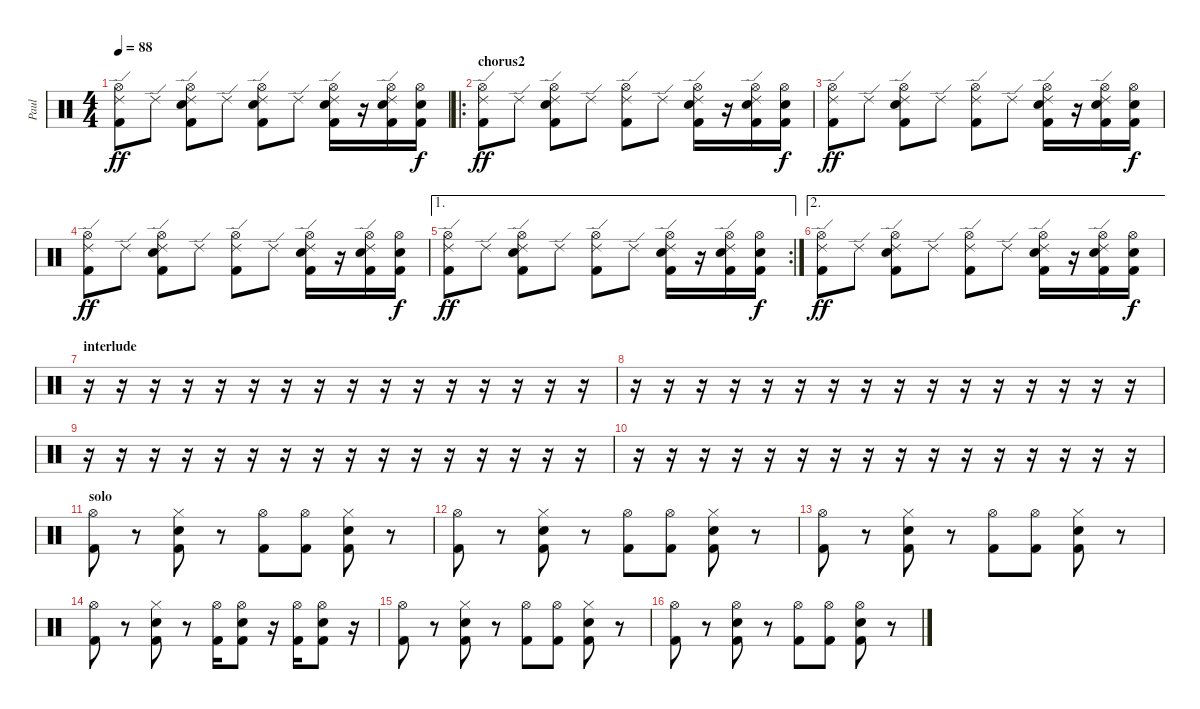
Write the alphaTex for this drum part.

\track ("Paul" "Paul") {instrument percussion}
\staff {score}
\articulation defaults
\ts (4 4)
\tempo 88
\clef neutral
\ks c
("Hi-Hat (open)" "Ride (edge) 2" "Kick (hit) 2").8{dy ff} "Ride (edge) 2".8 ("Snare (hit) 2" "Hi-Hat (open)" "Ride (edge) 2" "Kick (hit) 2").8 "Ride (edge) 2".8 ("Snare (hit) 2" "Hi-Hat (open)" "Ride (edge) 2" "Kick (hit) 2").8 "Ride (edge) 2".8 ("Snare (hit) 2" "Hi-Hat (open)" "Ride (edge) 2" "Kick (hit) 2").16 r.16 ("Snare (hit) 2" "Hi-Hat (open)" "Ride (edge) 2" "Kick (hit) 2").16 ("Snare (hit) 2" "Hi-Hat (open)" "Kick (hit) 2").16{dy f} |
\ro
\section ("" "chorus2")
("Hi-Hat (open)" "Ride (edge) 2" "Kick (hit) 2").8{dy ff} "Ride (edge) 2".8 ("Snare (hit) 2" "Hi-Hat (open)" "Ride (edge) 2" "Kick (hit) 2").8 "Ride (edge) 2".8 ("Hi-Hat (open)" "Ride (edge) 2" "Kick (hit) 2").8 "Ride (edge) 2".8 ("Snare (hit) 2" "Hi-Hat (open)" "Ride (edge) 2" "Kick (hit) 2").16 r.16 ("Snare (hit) 2" "Hi-Hat (open)" "Ride (edge) 2" "Kick (hit) 2").16 ("Snare (hit) 2" "Hi-Hat (open)" "Kick (hit) 2").16{dy f} |
("Hi-Hat (open)" "Ride (edge) 2" "Kick (hit) 2").8{dy ff} "Ride (edge) 2".8 ("Snare (hit) 2" "Hi-Hat (open)" "Ride (edge) 2" "Kick (hit) 2").8 "Ride (edge) 2".8 ("Hi-Hat (open)" "Ride (edge) 2" "Kick (hit) 2").8 "Ride (edge) 2".8 ("Snare (hit) 2" "Hi-Hat (open)" "Ride (edge) 2" "Kick (hit) 2").16 r.16 ("Snare (hit) 2" "Hi-Hat (open)" "Ride (edge) 2" "Kick (hit) 2").16 ("Snare (hit) 2" "Hi-Hat (open)" "Kick (hit) 2").16{dy f} |
("Hi-Hat (open)" "Ride (edge) 2" "Kick (hit) 2").8{dy ff} "Ride (edge) 2".8 ("Snare (hit) 2" "Hi-Hat (open)" "Ride (edge) 2" "Kick (hit) 2").8 "Ride (edge) 2".8 ("Hi-Hat (open)" "Ride (edge) 2" "Kick (hit) 2").8 "Ride (edge) 2".8 ("Snare (hit) 2" "Hi-Hat (open)" "Ride (edge) 2" "Kick (hit) 2").16 r.16 ("Snare (hit) 2" "Hi-Hat (open)" "Ride (edge) 2" "Kick (hit) 2").16 ("Snare (hit) 2" "Hi-Hat (open)" "Kick (hit) 2").16{dy f} |
\ae 1
\rc 2
("Hi-Hat (open)" "Ride (edge) 2" "Kick (hit) 2").8{dy ff} "Ride (edge) 2".8 ("Snare (hit) 2" "Hi-Hat (open)" "Ride (edge) 2" "Kick (hit) 2").8 "Ride (edge) 2".8 ("Hi-Hat (open)" "Ride (edge) 2" "Kick (hit) 2").8 "Ride (edge) 2".8 ("Snare (hit) 2" "Hi-Hat (open)" "Ride (edge) 2" "Kick (hit) 2").16 r.16 ("Snare (hit) 2" "Hi-Hat (open)" "Ride (edge) 2" "Kick (hit) 2").16 ("Snare (hit) 2" "Hi-Hat (open)" "Kick (hit) 2").16{dy f} |
\ae 2
("Hi-Hat (open)" "Ride (edge) 2" "Kick (hit) 2").8{dy ff} "Ride (edge) 2".8 ("Snare (hit) 2" "Hi-Hat (open)" "Ride (edge) 2" "Kick (hit) 2").8 "Ride (edge) 2".8 ("Hi-Hat (open)" "Ride (edge) 2" "Kick (hit) 2").8 "Ride (edge) 2".8 ("Snare (hit) 2" "Hi-Hat (open)" "Ride (edge) 2" "Kick (hit) 2").16 r.16 ("Snare (hit) 2" "Hi-Hat (open)" "Ride (edge) 2" "Kick (hit) 2").16 ("Snare (hit) 2" "Hi-Hat (open)" "Kick (hit) 2").16{dy f} |
\section ("" "interlude")
r.16 r.16 r.16 r.16 r.16 r.16 r.16 r.16 r.16 r.16 r.16 r.16 r.16 r.16 r.16 r.16 |
r.16 r.16 r.16 r.16 r.16 r.16 r.16 r.16 r.16 r.16 r.16 r.16 r.16 r.16 r.16 r.16 |
r.16 r.16 r.16 r.16 r.16 r.16 r.16 r.16 r.16 r.16 r.16 r.16 r.16 r.16 r.16 r.16 |
r.16 r.16 r.16 r.16 r.16 r.16 r.16 r.16 r.16 r.16 r.16 r.16 r.16 r.16 r.16 r.16 |
\section ("" "solo")
("Hi-Hat (open)" "Kick (hit) 2").8 r.8 ("Snare (hit) 2" "Hi-Hat (closed)" "Kick (hit) 2").8 r.8 ("Hi-Hat (open)" "Kick (hit) 2").8 ("Hi-Hat (open)" "Kick (hit) 2").8 ("Snare (hit) 2" "Hi-Hat (closed)" "Kick (hit) 2").8 r.8 |
("Hi-Hat (open)" "Kick (hit) 2").8 r.8 ("Snare (hit) 2" "Hi-Hat (closed)" "Kick (hit) 2").8 r.8 ("Hi-Hat (open)" "Kick (hit) 2").8 ("Hi-Hat (open)" "Kick (hit) 2").8 ("Snare (hit) 2" "Hi-Hat (closed)" "Kick (hit) 2").8 r.8 |
("Hi-Hat (open)" "Kick (hit) 2").8 r.8 ("Snare (hit) 2" "Hi-Hat (closed)" "Kick (hit) 2").8 r.8 ("Hi-Hat (open)" "Kick (hit) 2").8 ("Hi-Hat (open)" "Kick (hit) 2").8 ("Snare (hit) 2" "Hi-Hat (closed)" "Kick (hit) 2").8 r.8 |
("Hi-Hat (open)" "Kick (hit) 2").8 r.8 ("Snare (hit) 2" "Hi-Hat (closed)" "Kick (hit) 2").8 r.8 ("Hi-Hat (open)" "Kick (hit) 2").16 ("Snare (hit) 2" "Hi-Hat (open)" "Kick (hit) 2").8 r.16 ("Hi-Hat (open)" "Kick (hit) 2").16 ("Snare (hit) 2" "Hi-Hat (open)" "Kick (hit) 2").8 r.16 |
("Hi-Hat (open)" "Kick (hit) 2").8 r.8 ("Snare (hit) 2" "Hi-Hat (closed)" "Kick (hit) 2").8 r.8 ("Hi-Hat (open)" "Kick (hit) 2").8 ("Hi-Hat (open)" "Kick (hit) 2").8 ("Snare (hit) 2" "Hi-Hat (closed)" "Kick (hit) 2").8 r.8 |
("Hi-Hat (open)" "Kick (hit) 2").8 r.8 ("Snare (hit) 2" "Hi-Hat (open)" "Kick (hit) 2").8 r.8 ("Hi-Hat (open)" "Kick (hit) 2").8 ("Hi-Hat (open)" "Kick (hit) 2").8 ("Snare (hit) 2" "Hi-Hat (open)" "Kick (hit) 2").8 r.8
